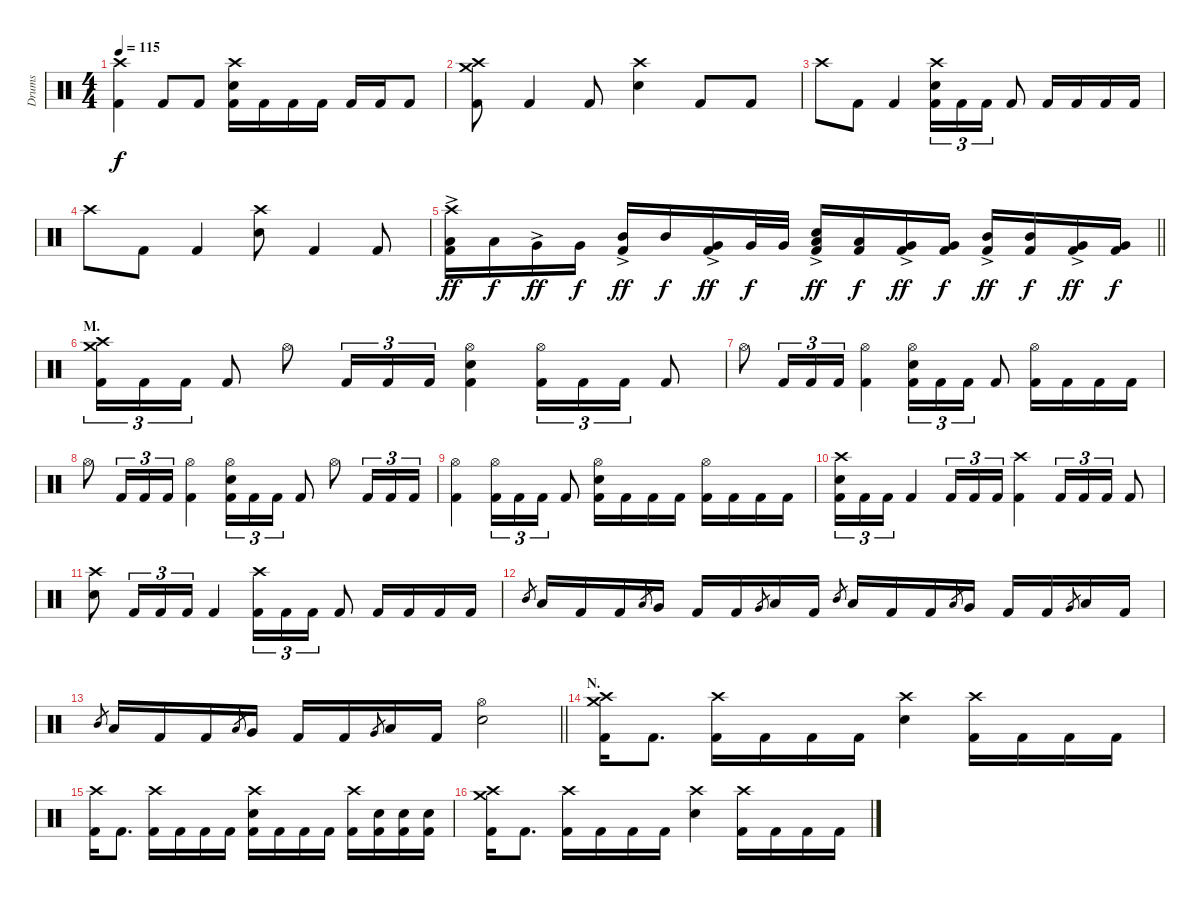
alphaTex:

\track ("Drums" "Drums") {instrument percussion}
\staff {score}
\articulation defaults
\ts (4 4)
\tempo 115
\clef neutral
\ks c
("Crash high (hit)" "Kick (hit) 2").4{dy f} "Kick (hit) 2".8 "Kick (hit) 2".8 ("Crash high (hit)" "Electric Snare (hit)" "Kick (hit) 2").16 "Kick (hit) 2".16 "Kick (hit) 2".16 "Kick (hit) 2".16 "Kick (hit) 2".16 "Kick (hit) 2".16 "Kick (hit) 2".8 |
("Crash medium (hit)" "Crash high (hit)" "Kick (hit) 2").8 "Kick (hit) 2".4 "Kick (hit) 2".8 ("Crash high (hit)" "Electric Snare (hit)").4 "Kick (hit) 2".8 "Kick (hit) 2".8 |
"Crash high (hit)".8 "Kick (hit) 2".8 "Kick (hit) 2".4 ("Crash high (hit)" "Electric Snare (hit)" "Kick (hit) 2").16{tu (3 2)} "Kick (hit) 2".16{tu (3 2)} "Kick (hit) 2".16{tu (3 2)} "Kick (hit) 2".8 "Kick (hit) 2".16 "Kick (hit) 2".16 "Kick (hit) 2".16 "Kick (hit) 2".16 |
"Crash high (hit)".8 "Kick (hit) 2".8 "Kick (hit) 2".4 ("Crash high (hit)" "Electric Snare (hit)").8 "Kick (hit) 2".4 "Kick (hit) 2".8 |
\barLineRight lightlight
("Crash high (hit)" "Low Tom (hit)"{ac} "Kick (hit) 2").16{dy ff} "Low Tom (hit)".16{dy f} "Very Low Tom (hit)"{ac}.16{dy ff} "Very Low Tom (hit)".16{dy f} ("Mid Tom (hit)"{ac} "Kick (hit) 2").16{dy ff} "Mid Tom (hit)".16{dy f} ("Very Low Tom (hit)"{ac} "Kick (hit) 2").16{dy ff} "Very Low Tom (hit)".32{dy f} "Very Low Tom (hit)".32 ("Low Tom (hit)" "Electric Snare (hit)"{ac} "Kick (hit) 2").16{dy ff} ("Low Tom (hit)" "Kick (hit) 2").16{dy f} ("Very Low Tom (hit)"{ac} "Kick (hit) 2").16{dy ff} ("Very Low Tom (hit)" "Kick (hit) 2").16{dy f} ("Mid Tom (hit)"{ac} "Kick (hit) 2").16{dy ff} ("Mid Tom (hit)" "Kick (hit) 2").16{dy f} ("Very Low Tom (hit)"{ac} "Kick (hit) 2").16{dy ff} ("Very Low Tom (hit)" "Kick (hit) 2").16{dy f} |
\section ("" "M.")
("Crash medium (hit)" "Crash high (hit)" "Kick (hit) 2").16{tu (3 2)} "Kick (hit) 2".16{tu (3 2)} "Kick (hit) 2".16{tu (3 2)} "Kick (hit) 2".8 "Hi-Hat (open)".8 "Kick (hit) 2".16{tu (3 2)} "Kick (hit) 2".16{tu (3 2)} "Kick (hit) 2".16{tu (3 2)} ("Hi-Hat (open)" "Electric Snare (hit)" "Kick (hit) 2").4 ("Hi-Hat (open)" "Kick (hit) 2").16{tu (3 2)} "Kick (hit) 2".16{tu (3 2)} "Kick (hit) 2".16{tu (3 2)} "Kick (hit) 2".8 |
"Hi-Hat (open)".8 "Kick (hit) 2".16{tu (3 2)} "Kick (hit) 2".16{tu (3 2)} "Kick (hit) 2".16{tu (3 2)} ("Hi-Hat (open)" "Kick (hit) 2").4 ("Hi-Hat (open)" "Electric Snare (hit)" "Kick (hit) 2").16{tu (3 2)} "Kick (hit) 2".16{tu (3 2)} "Kick (hit) 2".16{tu (3 2)} "Kick (hit) 2".8 ("Hi-Hat (open)" "Kick (hit) 2").16 "Kick (hit) 2".16 "Kick (hit) 2".16 "Kick (hit) 2".16 |
"Hi-Hat (open)".8 "Kick (hit) 2".16{tu (3 2)} "Kick (hit) 2".16{tu (3 2)} "Kick (hit) 2".16{tu (3 2)} ("Hi-Hat (open)" "Kick (hit) 2").4 ("Hi-Hat (open)" "Electric Snare (hit)" "Kick (hit) 2").16{tu (3 2)} "Kick (hit) 2".16{tu (3 2)} "Kick (hit) 2".16{tu (3 2)} "Kick (hit) 2".8 "Hi-Hat (open)".8 "Kick (hit) 2".16{tu (3 2)} "Kick (hit) 2".16{tu (3 2)} "Kick (hit) 2".16{tu (3 2)} |
("Hi-Hat (open)" "Kick (hit) 2").4 ("Hi-Hat (open)" "Kick (hit) 2").16{tu (3 2)} "Kick (hit) 2".16{tu (3 2)} "Kick (hit) 2".16{tu (3 2)} "Kick (hit) 2".8 ("Hi-Hat (open)" "Electric Snare (hit)" "Kick (hit) 2").16 "Kick (hit) 2".16 "Kick (hit) 2".16 "Kick (hit) 2".16 ("Hi-Hat (open)" "Kick (hit) 2").16 "Kick (hit) 2".16 "Kick (hit) 2".16 "Kick (hit) 2".16 |
("Crash high (hit)" "Electric Snare (hit)" "Kick (hit) 2").16{tu (3 2)} "Kick (hit) 2".16{tu (3 2)} "Kick (hit) 2".16{tu (3 2)} "Kick (hit) 2".4 "Kick (hit) 2".16{tu (3 2)} "Kick (hit) 2".16{tu (3 2)} "Kick (hit) 2".16{tu (3 2)} ("Crash high (hit)" "Kick (hit) 2").4 "Kick (hit) 2".16{tu (3 2)} "Kick (hit) 2".16{tu (3 2)} "Kick (hit) 2".16{tu (3 2)} "Kick (hit) 2".8 |
("Crash high (hit)" "Electric Snare (hit)").8 "Kick (hit) 2".16{tu (3 2)} "Kick (hit) 2".16{tu (3 2)} "Kick (hit) 2".16{tu (3 2)} "Kick (hit) 2".4 ("Crash high (hit)" "Kick (hit) 2").16{tu (3 2)} "Kick (hit) 2".16{tu (3 2)} "Kick (hit) 2".16{tu (3 2)} "Kick (hit) 2".8 "Kick (hit) 2".16 "Kick (hit) 2".16 "Kick (hit) 2".16 "Kick (hit) 2".16 |
"Mid Tom (hit)".8{gr} "Low Tom (hit)".16 "Kick (hit) 2".16 "Kick (hit) 2".16 "Low Tom (hit)".8{gr} "Very Low Tom (hit)".16 "Kick (hit) 2".16 "Kick (hit) 2".16 "Very Low Tom (hit)".8{gr} "Low Floor Tom (hit)".16 "Kick (hit) 2".16 "Mid Tom (hit)".8{gr} "Low Tom (hit)".16 "Kick (hit) 2".16 "Kick (hit) 2".16 "Low Tom (hit)".8{gr} "Very Low Tom (hit)".16 "Kick (hit) 2".16 "Kick (hit) 2".16 "Very Low Tom (hit)".8{gr} "Low Floor Tom (hit)".16 "Kick (hit) 2".16 |
\barLineRight lightlight "Mid Tom (hit)".8{gr} "Low Tom (hit)".16 "Kick (hit) 2".16 "Kick (hit) 2".16 "Low Tom (hit)".8{gr} "Very Low Tom (hit)".16 "Kick (hit) 2".16 "Kick (hit) 2".16 "Very Low Tom (hit)".8{gr} "Low Floor Tom (hit)".16 "Kick (hit) 2".16
("Hi-Hat (open)" "Electric Snare (hit)").2 |
\section ("" "N.")
("Crash medium (hit)" "Crash high (hit)" "Kick (hit) 2").16 "Kick (hit) 2".8{d} ("Crash high (hit)" "Kick (hit) 2").16 "Kick (hit) 2".16 "Kick (hit) 2".16 "Kick (hit) 2".16 ("Crash high (hit)" "Electric Snare (hit)").4 ("Crash high (hit)" "Kick (hit) 2").16 "Kick (hit) 2".16 "Kick (hit) 2".16 "Kick (hit) 2".16 |
("Crash high (hit)" "Kick (hit) 2").16 "Kick (hit) 2".8{d} ("Crash high (hit)" "Kick (hit) 2").16 "Kick (hit) 2".16 "Kick (hit) 2".16 "Kick (hit) 2".16 ("Crash high (hit)" "Electric Snare (hit)" "Kick (hit) 2").16 "Kick (hit) 2".16 "Kick (hit) 2".16 "Kick (hit) 2".16 ("Crash high (hit)" "Kick (hit) 2").16 ("Electric Snare (hit)" "Kick (hit) 2").16 ("Electric Snare (hit)" "Kick (hit) 2").16 ("Electric Snare (hit)" "Kick (hit) 2").16 |
("Crash medium (hit)" "Crash high (hit)" "Kick (hit) 2").16 "Kick (hit) 2".8{d} ("Crash high (hit)" "Kick (hit) 2").16 "Kick (hit) 2".16 "Kick (hit) 2".16 "Kick (hit) 2".16 ("Crash high (hit)" "Electric Snare (hit)").4 ("Crash high (hit)" "Kick (hit) 2").16 "Kick (hit) 2".16 "Kick (hit) 2".16 "Kick (hit) 2".16
